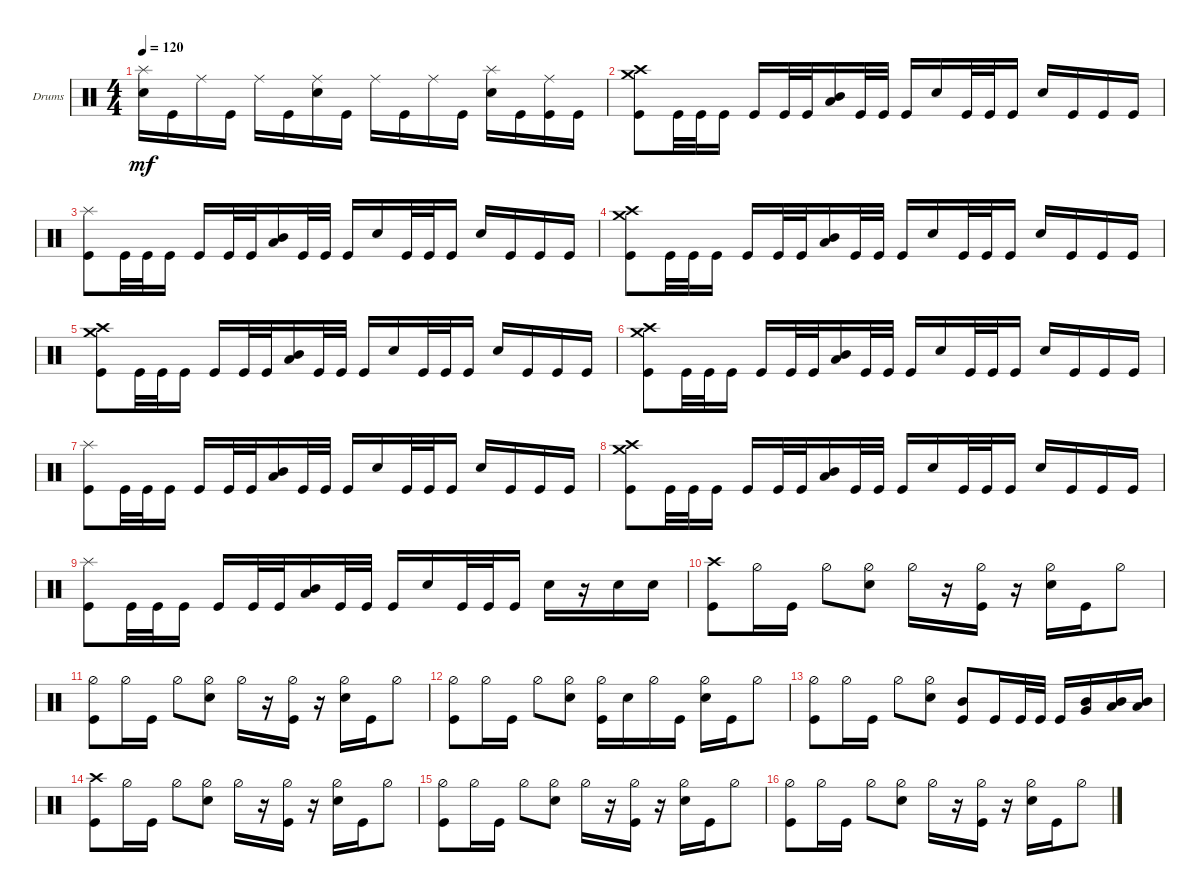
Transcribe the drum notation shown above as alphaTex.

\defaultSystemsLayout 4
\bracketExtendMode groupsimilarinstruments
\firstSystemTrackNameOrientation horizontal
\otherSystemsTrackNameOrientation horizontal
\track ("Drumkit" "Drums") {instrument percussion}
\staff {score}
\articulation defaults
\ts (4 4)
\tempo 120
\clef neutral
\ks c
("Snare (hit) 2" "Splash (hit)").16{dy mf} "Kick (hit)".16 "Ride (middle)".16 "Kick (hit)".16 "Ride (middle)".16 "Kick (hit)".16 ("Snare (hit) 2" "Ride (middle)").16 "Kick (hit)".16 "Ride (middle)".16 "Kick (hit)".16 "Ride (middle)".16 "Kick (hit)".16 ("Snare (hit) 2" "Splash (hit)").16 "Kick (hit)".16 ("Ride (middle)" "Kick (hit)").16 "Kick (hit)".16 |
("Crash high (hit)" "Crash medium (hit)" "Kick (hit)").8 "Kick (hit)".32 "Kick (hit)".32 "Kick (hit)".16 "Kick (hit)".16 "Kick (hit)".32 "Kick (hit)".32 ("Mid Tom (hit)" "Low Tom (hit)").16 "Kick (hit)".32 "Kick (hit)".32 "Kick (hit)".16 "Snare (hit) 2".16 "Kick (hit)".32 "Kick (hit)".32 "Kick (hit)".16 "Snare (hit) 2".16 "Kick (hit)".16 "Kick (hit)".16 "Kick (hit)".16 |
("Kick (hit)" "Splash (hit)").8 "Kick (hit)".32 "Kick (hit)".32 "Kick (hit)".16 "Kick (hit)".16 "Kick (hit)".32 "Kick (hit)".32 ("Mid Tom (hit)" "Low Tom (hit)").16 "Kick (hit)".32 "Kick (hit)".32 "Kick (hit)".16 "Snare (hit) 2".16 "Kick (hit)".32 "Kick (hit)".32 "Kick (hit)".16 "Snare (hit) 2".16 "Kick (hit)".16 "Kick (hit)".16 "Kick (hit)".16 |
("Crash high (hit)" "Crash medium (hit)" "Kick (hit)").8 "Kick (hit)".32 "Kick (hit)".32 "Kick (hit)".16 "Kick (hit)".16 "Kick (hit)".32 "Kick (hit)".32 ("Mid Tom (hit)" "Low Tom (hit)").16 "Kick (hit)".32 "Kick (hit)".32 "Kick (hit)".16 "Snare (hit) 2".16 "Kick (hit)".32 "Kick (hit)".32 "Kick (hit)".16 "Snare (hit) 2".16 "Kick (hit)".16 "Kick (hit)".16 "Kick (hit)".16 |
("Kick (hit)" "Crash medium (hit)" "Crash high (hit)").8 "Kick (hit)".32 "Kick (hit)".32 "Kick (hit)".16 "Kick (hit)".16 "Kick (hit)".32 "Kick (hit)".32 ("Mid Tom (hit)" "Low Tom (hit)").16 "Kick (hit)".32 "Kick (hit)".32 "Kick (hit)".16 "Snare (hit) 2".16 "Kick (hit)".32 "Kick (hit)".32 "Kick (hit)".16 "Snare (hit) 2".16 "Kick (hit)".16 "Kick (hit)".16 "Kick (hit)".16 |
("Crash high (hit)" "Crash medium (hit)" "Kick (hit)").8 "Kick (hit)".32 "Kick (hit)".32 "Kick (hit)".16 "Kick (hit)".16 "Kick (hit)".32 "Kick (hit)".32 ("Mid Tom (hit)" "Low Tom (hit)").16 "Kick (hit)".32 "Kick (hit)".32 "Kick (hit)".16 "Snare (hit) 2".16 "Kick (hit)".32 "Kick (hit)".32 "Kick (hit)".16 "Snare (hit) 2".16 "Kick (hit)".16 "Kick (hit)".16 "Kick (hit)".16 |
("Kick (hit)" "Splash (hit)").8 "Kick (hit)".32 "Kick (hit)".32 "Kick (hit)".16 "Kick (hit)".16 "Kick (hit)".32 "Kick (hit)".32 ("Mid Tom (hit)" "Low Tom (hit)").16 "Kick (hit)".32 "Kick (hit)".32 "Kick (hit)".16 "Snare (hit) 2".16 "Kick (hit)".32 "Kick (hit)".32 "Kick (hit)".16 "Snare (hit) 2".16 "Kick (hit)".16 "Kick (hit)".16 "Kick (hit)".16 |
("Crash high (hit)" "Crash medium (hit)" "Kick (hit)").8 "Kick (hit)".32 "Kick (hit)".32 "Kick (hit)".16 "Kick (hit)".16 "Kick (hit)".32 "Kick (hit)".32 ("Mid Tom (hit)" "Low Tom (hit)").16 "Kick (hit)".32 "Kick (hit)".32 "Kick (hit)".16 "Snare (hit) 2".16 "Kick (hit)".32 "Kick (hit)".32 "Kick (hit)".16 "Snare (hit) 2".16 "Kick (hit)".16 "Kick (hit)".16 "Kick (hit)".16 |
("Kick (hit)" "Splash (hit)").8 "Kick (hit)".32 "Kick (hit)".32 "Kick (hit)".16 "Kick (hit)".16 "Kick (hit)".32 "Kick (hit)".32 ("Mid Tom (hit)" "Low Tom (hit)").16 "Kick (hit)".32 "Kick (hit)".32 "Kick (hit)".16 "Snare (hit) 2".16 "Kick (hit)".32 "Kick (hit)".32 "Kick (hit)".16 "Snare (hit) 2".16 r.16 "Snare (hit) 2".16 "Snare (hit) 2".16 |
("Crash high (hit)" "Kick (hit)").8 "Hi-Hat (half)".16 "Kick (hit)".16 "Hi-Hat (half)".8 ("Snare (hit) 2" "Hi-Hat (half)").8 "Hi-Hat (half)".16 r.16 ("Hi-Hat (half)" "Kick (hit)").16 r.16 ("Snare (hit) 2" "Hi-Hat (half)").16 "Kick (hit)".16 "Hi-Hat (half)".8 |
("Kick (hit)" "Hi-Hat (half)").8 "Hi-Hat (half)".16 "Kick (hit)".16 "Hi-Hat (half)".8 ("Snare (hit) 2" "Hi-Hat (half)").8 "Hi-Hat (half)".16 r.16 ("Hi-Hat (half)" "Kick (hit)").16 r.16 ("Snare (hit) 2" "Hi-Hat (half)").16 "Kick (hit)".16 "Hi-Hat (half)".8 |
("Kick (hit)" "Hi-Hat (half)").8 "Hi-Hat (half)".16 "Kick (hit)".16 "Hi-Hat (half)".8 ("Snare (hit) 2" "Hi-Hat (half)").8 ("Kick (hit)" "Hi-Hat (half)").16 "Snare (hit) 2".16 "Hi-Hat (half)".16 "Kick (hit)".16 ("Snare (hit) 2" "Hi-Hat (half)").16 "Kick (hit)".16 "Hi-Hat (half)".8 |
("Kick (hit)" "Hi-Hat (half)").8 "Hi-Hat (half)".16 "Kick (hit)".16 "Hi-Hat (half)".8 ("Snare (hit) 2" "Hi-Hat (half)").8 ("Mid Tom (hit)" "Kick (hit)").8 "Kick (hit)".16 "Kick (hit)".32 "Kick (hit)".32 "Kick (hit)".16 ("Very Low Tom (hit)" "Mid Tom (hit)").16 ("Low Tom (hit)" "Mid Tom (hit)").16 ("Low Tom (hit)" "Mid Tom (hit)").16 |
("Crash high (hit)" "Kick (hit)").8 "Hi-Hat (half)".16 "Kick (hit)".16 "Hi-Hat (half)".8 ("Snare (hit) 2" "Hi-Hat (half)").8 "Hi-Hat (half)".16 r.16 ("Hi-Hat (half)" "Kick (hit)").16 r.16 ("Snare (hit) 2" "Hi-Hat (half)").16 "Kick (hit)".16 "Hi-Hat (half)".8 |
("Kick (hit)" "Hi-Hat (half)").8 "Hi-Hat (half)".16 "Kick (hit)".16 "Hi-Hat (half)".8 ("Snare (hit) 2" "Hi-Hat (half)").8 "Hi-Hat (half)".16 r.16 ("Hi-Hat (half)" "Kick (hit)").16 r.16 ("Snare (hit) 2" "Hi-Hat (half)").16 "Kick (hit)".16 "Hi-Hat (half)".8 |
("Kick (hit)" "Hi-Hat (half)").8 "Hi-Hat (half)".16 "Kick (hit)".16 "Hi-Hat (half)".8 ("Snare (hit) 2" "Hi-Hat (half)").8 "Hi-Hat (half)".16 r.16 ("Hi-Hat (half)" "Kick (hit)").16 r.16 ("Snare (hit) 2" "Hi-Hat (half)").16 "Kick (hit)".16 "Hi-Hat (half)".8
